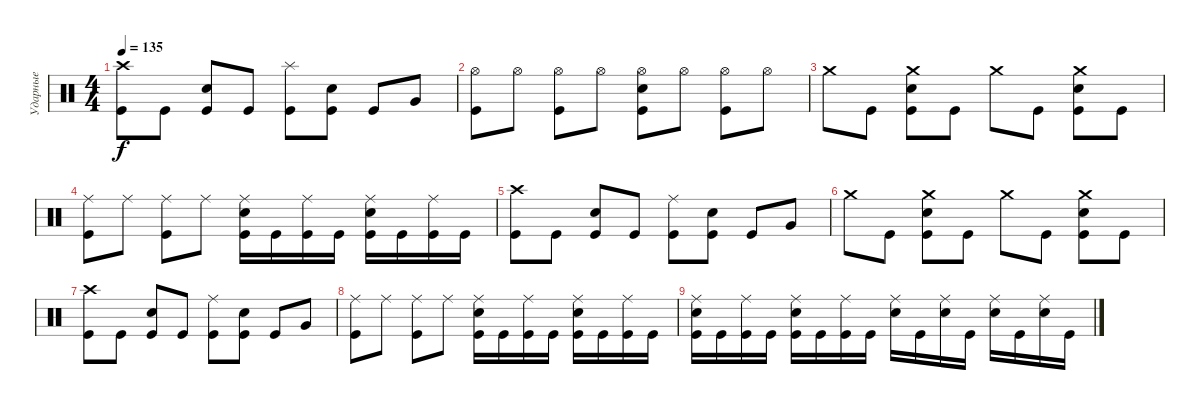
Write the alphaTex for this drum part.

\track ("Ударные" "Ударные") {instrument percussion}
\staff {score}
\articulation defaults
\ts (4 4)
\section ("" " ")
\tempo 135
\clef neutral
\ks c
("Crash high (hit)" "Kick (hit)").8{dy f} "Kick (hit)".8 ("Electric Snare (hit)" "Kick (hit)").8 "Kick (hit)".8 ("Splash (hit)" "Kick (hit)").8 ("Electric Snare (hit)" "Kick (hit)").8 "Kick (hit)".8 "Very Low Tom (hit)".8 |
("Hi-Hat (open)" "Kick (hit)").8 "Hi-Hat (open)".8 ("Hi-Hat (open)" "Kick (hit)").8 "Hi-Hat (open)".8 ("Hi-Hat (open)" "Electric Snare (hit)" "Kick (hit)").8 "Hi-Hat (open)".8 ("Hi-Hat (open)" "Kick (hit)").8 "Hi-Hat (open)".8 |
"Crash medium (hit)".8 "Kick (hit)".8 ("Crash medium (hit)" "Electric Snare (hit)" "Kick (hit)").8 "Kick (hit)".8 "Crash medium (hit)".8 "Kick (hit)".8 ("Crash medium (hit)" "Electric Snare (hit)" "Kick (hit)").8 "Kick (hit)".8 |
("Ride (middle)" "Kick (hit)").8 "Ride (middle)".8 ("Ride (middle)" "Kick (hit)").8 "Ride (middle)".8 ("Ride (middle)" "Electric Snare (hit)" "Kick (hit)").16 "Kick (hit)".16 ("Ride (middle)" "Kick (hit)").16 "Kick (hit)".16 ("Ride (middle)" "Electric Snare (hit)" "Kick (hit)").16 "Kick (hit)".16 ("Ride (middle)" "Kick (hit)").16 "Kick (hit)".16 |
("Crash high (hit)" "Kick (hit)").8 "Kick (hit)".8 ("Electric Snare (hit)" "Kick (hit)").8 "Kick (hit)".8 ("Ride (middle)" "Kick (hit)").8 ("Electric Snare (hit)" "Kick (hit)").8 "Kick (hit)".8 "Very Low Tom (hit)".8 |
"Crash medium (hit)".8 "Kick (hit)".8 ("Crash medium (hit)" "Electric Snare (hit)" "Kick (hit)").8 "Kick (hit)".8 "Crash medium (hit)".8 "Kick (hit)".8 ("Crash medium (hit)" "Electric Snare (hit)" "Kick (hit)").8 "Kick (hit)".8 |
("Crash high (hit)" "Kick (hit)").8 "Kick (hit)".8 ("Electric Snare (hit)" "Kick (hit)").8 "Kick (hit)".8 ("Ride (middle)" "Kick (hit)").8 ("Electric Snare (hit)" "Kick (hit)").8 "Kick (hit)".8 "Very Low Tom (hit)".8 |
("Ride (middle)" "Kick (hit)").8 "Ride (middle)".8 ("Ride (middle)" "Kick (hit)").8 "Ride (middle)".8 ("Ride (middle)" "Electric Snare (hit)" "Kick (hit)").16 "Kick (hit)".16 ("Ride (middle)" "Kick (hit)").16 "Kick (hit)".16 ("Ride (middle)" "Electric Snare (hit)" "Kick (hit)").16 "Kick (hit)".16 ("Ride (middle)" "Kick (hit)").16 "Kick (hit)".16 |
("Ride (middle)" "Electric Snare (hit)" "Kick (hit)").16 "Kick (hit)".16 ("Ride (middle)" "Kick (hit)").16 "Kick (hit)".16 ("Ride (middle)" "Electric Snare (hit)" "Kick (hit)").16 "Kick (hit)".16 ("Ride (middle)" "Kick (hit)").16 "Kick (hit)".16 ("Ride (middle)" "Electric Snare (hit)").16 "Kick (hit)".16 ("Ride (middle)" "Electric Snare (hit)").16 "Kick (hit)".16 ("Ride (middle)" "Electric Snare (hit)").16 "Kick (hit)".16 ("Ride (middle)" "Electric Snare (hit)").16 "Kick (hit)".16
